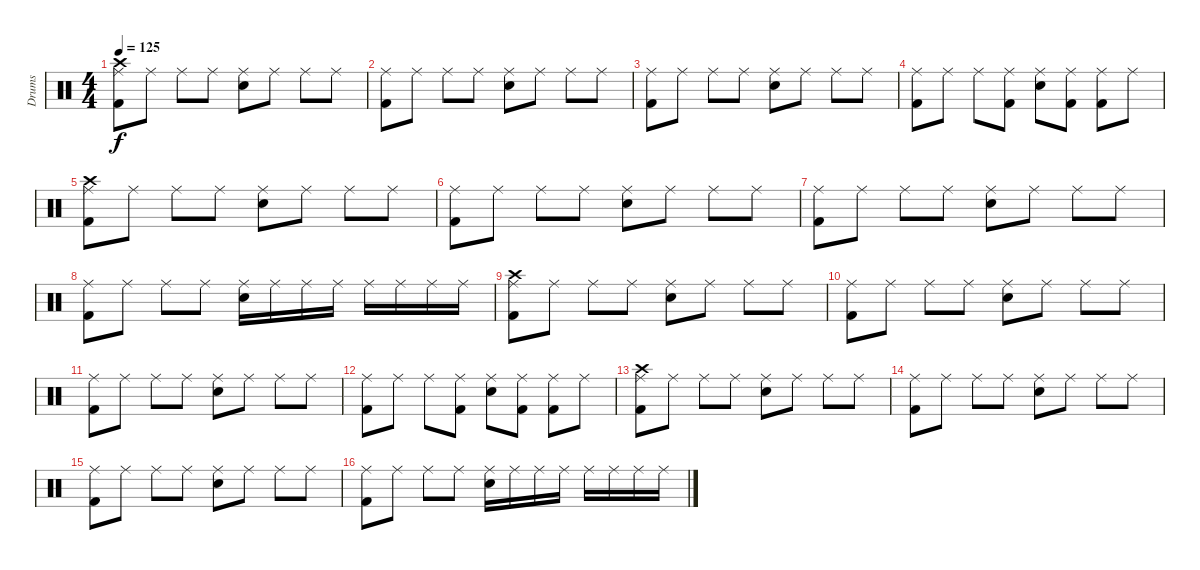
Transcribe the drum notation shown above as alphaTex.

\track ("Drums" "Drums") {instrument percussion}
\staff {score}
\articulation defaults
\ts (4 4)
\tempo 125
\clef neutral
\ks c
("Crash high (hit)" "Ride (middle)" "Kick (hit) 2").8{dy f} "Ride (middle)".8 "Ride (middle)".8 "Ride (middle)".8 ("Ride (middle)" "Snare (hit) 2").8 "Ride (middle)".8 "Ride (middle)".8 "Ride (middle)".8 |
("Ride (middle)" "Kick (hit) 2").8 "Ride (middle)".8 "Ride (middle)".8 "Ride (middle)".8 ("Ride (middle)" "Snare (hit) 2").8 "Ride (middle)".8 "Ride (middle)".8 "Ride (middle)".8 |
("Ride (middle)" "Kick (hit) 2").8 "Ride (middle)".8 "Ride (middle)".8 "Ride (middle)".8 ("Ride (middle)" "Snare (hit) 2").8 "Ride (middle)".8 "Ride (middle)".8 "Ride (middle)".8 |
("Ride (middle)" "Kick (hit) 2").8 "Ride (middle)".8 "Ride (middle)".8 ("Ride (middle)" "Kick (hit) 2").8 ("Ride (middle)" "Snare (hit) 2").8 ("Ride (middle)" "Kick (hit) 2").8 ("Ride (middle)" "Kick (hit) 2").8 "Ride (middle)".8 |
("Crash high (hit)" "Ride (middle)" "Kick (hit) 2").8 "Ride (middle)".8 "Ride (middle)".8 "Ride (middle)".8 ("Ride (middle)" "Snare (hit) 2").8 "Ride (middle)".8 "Ride (middle)".8 "Ride (middle)".8 |
("Ride (middle)" "Kick (hit) 2").8 "Ride (middle)".8 "Ride (middle)".8 "Ride (middle)".8 ("Ride (middle)" "Snare (hit) 2").8 "Ride (middle)".8 "Ride (middle)".8 "Ride (middle)".8 |
("Ride (middle)" "Kick (hit) 2").8 "Ride (middle)".8 "Ride (middle)".8 "Ride (middle)".8 ("Ride (middle)" "Snare (hit) 2").8 "Ride (middle)".8 "Ride (middle)".8 "Ride (middle)".8 |
("Ride (middle)" "Kick (hit) 2").8 "Ride (middle)".8 "Ride (middle)".8 "Ride (middle)".8 ("Ride (middle)" "Snare (hit) 2").16 "Ride (middle)".16 "Ride (middle)".16 "Ride (middle)".16 "Ride (middle)".16 "Ride (middle)".16 "Ride (middle)".16 "Ride (middle)".16 |
("Crash high (hit)" "Ride (middle)" "Kick (hit) 2").8 "Ride (middle)".8 "Ride (middle)".8 "Ride (middle)".8 ("Ride (middle)" "Snare (hit) 2").8 "Ride (middle)".8 "Ride (middle)".8 "Ride (middle)".8 |
("Ride (middle)" "Kick (hit) 2").8 "Ride (middle)".8 "Ride (middle)".8 "Ride (middle)".8 ("Ride (middle)" "Snare (hit) 2").8 "Ride (middle)".8 "Ride (middle)".8 "Ride (middle)".8 |
("Ride (middle)" "Kick (hit) 2").8 "Ride (middle)".8 "Ride (middle)".8 "Ride (middle)".8 ("Ride (middle)" "Snare (hit) 2").8 "Ride (middle)".8 "Ride (middle)".8 "Ride (middle)".8 |
("Ride (middle)" "Kick (hit) 2").8 "Ride (middle)".8 "Ride (middle)".8 ("Ride (middle)" "Kick (hit) 2").8 ("Ride (middle)" "Snare (hit) 2").8 ("Ride (middle)" "Kick (hit) 2").8 ("Ride (middle)" "Kick (hit) 2").8 "Ride (middle)".8 |
("Crash high (hit)" "Ride (middle)" "Kick (hit) 2").8 "Ride (middle)".8 "Ride (middle)".8 "Ride (middle)".8 ("Ride (middle)" "Snare (hit) 2").8 "Ride (middle)".8 "Ride (middle)".8 "Ride (middle)".8 |
("Ride (middle)" "Kick (hit) 2").8 "Ride (middle)".8 "Ride (middle)".8 "Ride (middle)".8 ("Ride (middle)" "Snare (hit) 2").8 "Ride (middle)".8 "Ride (middle)".8 "Ride (middle)".8 |
("Ride (middle)" "Kick (hit) 2").8 "Ride (middle)".8 "Ride (middle)".8 "Ride (middle)".8 ("Ride (middle)" "Snare (hit) 2").8 "Ride (middle)".8 "Ride (middle)".8 "Ride (middle)".8 |
("Ride (middle)" "Kick (hit) 2").8 "Ride (middle)".8 "Ride (middle)".8 "Ride (middle)".8 ("Ride (middle)" "Snare (hit) 2").16 "Ride (middle)".16 "Ride (middle)".16 "Ride (middle)".16 "Ride (middle)".16 "Ride (middle)".16 "Ride (middle)".16 "Ride (middle)".16
